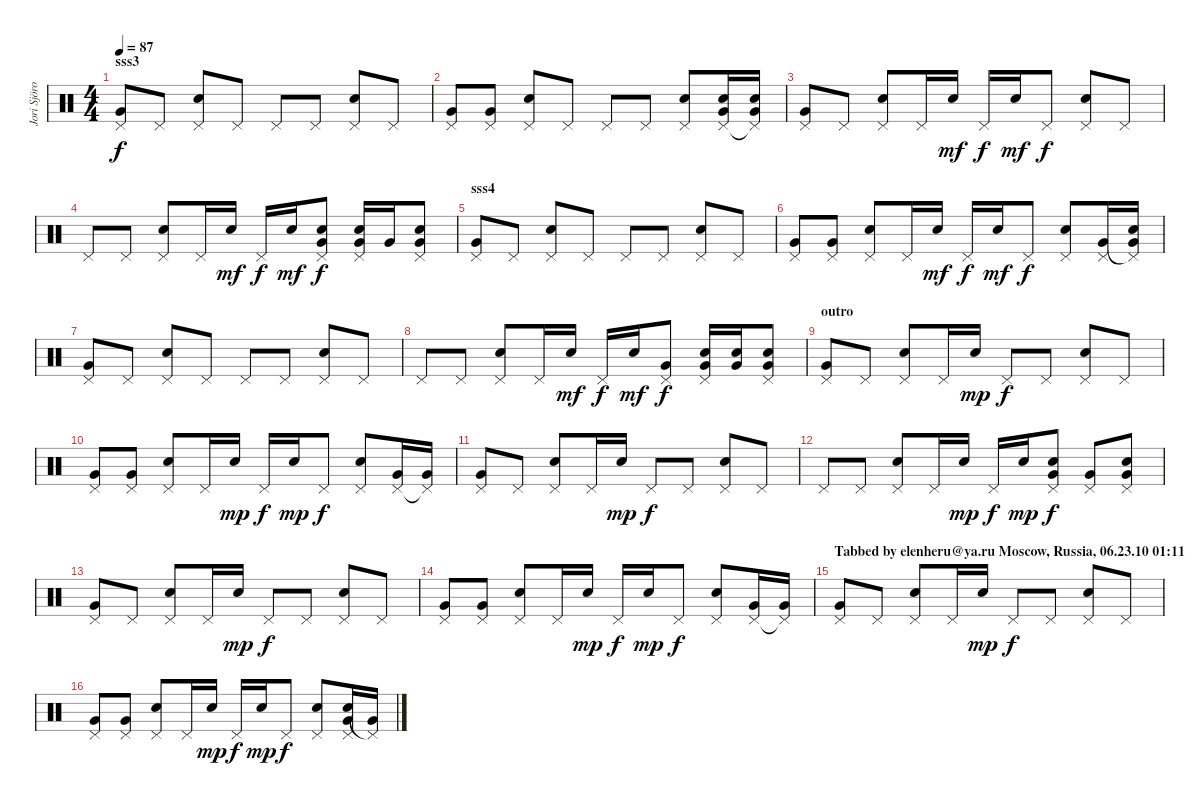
\track ("Jori Sjöroos" "Jori Sjöro") {instrument percussion}
\staff {score}
\articulation defaults
\ts (4 4)
\section ("" "sss3")
\tempo 87
\clef neutral
\ks c
("Pedal Hi-Hat (hit)" "Very Low Tom (hit)").8{dy f} "Pedal Hi-Hat (hit)".8 ("Snare (hit) 2" "Pedal Hi-Hat (hit)").8 "Pedal Hi-Hat (hit)".8 "Pedal Hi-Hat (hit)".8 "Pedal Hi-Hat (hit)".8 ("Snare (hit) 2" "Pedal Hi-Hat (hit)").8 "Pedal Hi-Hat (hit)".8 |
("Pedal Hi-Hat (hit)" "Very Low Tom (hit)").8 ("Pedal Hi-Hat (hit)" "Very Low Tom (hit)").8 ("Snare (hit) 2" "Pedal Hi-Hat (hit)").8 "Pedal Hi-Hat (hit)".8 "Pedal Hi-Hat (hit)".8 "Pedal Hi-Hat (hit)".8 ("Snare (hit) 2" "Pedal Hi-Hat (hit)").8 ("Snare (hit) 2" "Pedal Hi-Hat (hit)" "Very Low Tom (hit)").16 ("Snare (hit) 2" "Pedal Hi-Hat (hit)"{t} "Very Low Tom (hit)").16 |
("Pedal Hi-Hat (hit)" "Very Low Tom (hit)").8 "Pedal Hi-Hat (hit)".8 ("Snare (hit) 2" "Pedal Hi-Hat (hit)").8 "Pedal Hi-Hat (hit)".16 "Snare (hit) 2".16{dy mf} "Pedal Hi-Hat (hit)".16{dy f} "Snare (hit) 2".16{dy mf} "Pedal Hi-Hat (hit)".8{dy f} ("Snare (hit) 2" "Pedal Hi-Hat (hit)").8 "Pedal Hi-Hat (hit)".8 |
"Pedal Hi-Hat (hit)".8 "Pedal Hi-Hat (hit)".8 ("Snare (hit) 2" "Pedal Hi-Hat (hit)").8 "Pedal Hi-Hat (hit)".16 "Snare (hit) 2".16{dy mf} "Pedal Hi-Hat (hit)".16{dy f} "Snare (hit) 2".16{dy mf} ("Snare (hit) 2" "Pedal Hi-Hat (hit)" "Very Low Tom (hit)").8{dy f} ("Snare (hit) 2" "Pedal Hi-Hat (hit)" "Very Low Tom (hit)").16 "Very Low Tom (hit)".16 ("Snare (hit) 2" "Pedal Hi-Hat (hit)" "Very Low Tom (hit)").8 |
\section ("" "sss4")
("Pedal Hi-Hat (hit)" "Very Low Tom (hit)").8 "Pedal Hi-Hat (hit)".8 ("Snare (hit) 2" "Pedal Hi-Hat (hit)").8 "Pedal Hi-Hat (hit)".8 "Pedal Hi-Hat (hit)".8 "Pedal Hi-Hat (hit)".8 ("Snare (hit) 2" "Pedal Hi-Hat (hit)").8 "Pedal Hi-Hat (hit)".8 |
("Pedal Hi-Hat (hit)" "Very Low Tom (hit)").8 ("Pedal Hi-Hat (hit)" "Very Low Tom (hit)").8 ("Snare (hit) 2" "Pedal Hi-Hat (hit)").8 "Pedal Hi-Hat (hit)".16 "Snare (hit) 2".16{dy mf} "Pedal Hi-Hat (hit)".16{dy f} "Snare (hit) 2".16{dy mf} "Pedal Hi-Hat (hit)".8{dy f} ("Snare (hit) 2" "Pedal Hi-Hat (hit)").8 ("Pedal Hi-Hat (hit)" "Very Low Tom (hit)").16 ("Snare (hit) 2" "Pedal Hi-Hat (hit)"{t} "Very Low Tom (hit)").16 |
("Pedal Hi-Hat (hit)" "Very Low Tom (hit)").8 "Pedal Hi-Hat (hit)".8 ("Snare (hit) 2" "Pedal Hi-Hat (hit)").8 "Pedal Hi-Hat (hit)".8 "Pedal Hi-Hat (hit)".8 "Pedal Hi-Hat (hit)".8 ("Snare (hit) 2" "Pedal Hi-Hat (hit)").8 "Pedal Hi-Hat (hit)".8 |
"Pedal Hi-Hat (hit)".8 "Pedal Hi-Hat (hit)".8 ("Snare (hit) 2" "Pedal Hi-Hat (hit)").8 "Pedal Hi-Hat (hit)".16 "Snare (hit) 2".16{dy mf} "Pedal Hi-Hat (hit)".16{dy f} "Snare (hit) 2".16{dy mf} ("Pedal Hi-Hat (hit)" "Very Low Tom (hit)").8{dy f} ("Snare (hit) 2" "Pedal Hi-Hat (hit)" "Very Low Tom (hit)").16 ("Snare (hit) 2" "Very Low Tom (hit)").16 ("Snare (hit) 2" "Pedal Hi-Hat (hit)" "Very Low Tom (hit)").8 |
\section ("" "outro")
("Pedal Hi-Hat (hit)" "Very Low Tom (hit)").8 "Pedal Hi-Hat (hit)".8 ("Snare (hit) 2" "Pedal Hi-Hat (hit)").8 "Pedal Hi-Hat (hit)".16 "Snare (hit) 2".16{dy mp} "Pedal Hi-Hat (hit)".8{dy f} "Pedal Hi-Hat (hit)".8 ("Snare (hit) 2" "Pedal Hi-Hat (hit)").8 "Pedal Hi-Hat (hit)".8 |
("Pedal Hi-Hat (hit)" "Very Low Tom (hit)").8 ("Pedal Hi-Hat (hit)" "Very Low Tom (hit)").8 ("Snare (hit) 2" "Pedal Hi-Hat (hit)").8 "Pedal Hi-Hat (hit)".16 "Snare (hit) 2".16{dy mp} "Pedal Hi-Hat (hit)".16{dy f} "Snare (hit) 2".16{dy mp} "Pedal Hi-Hat (hit)".8{dy f} ("Snare (hit) 2" "Pedal Hi-Hat (hit)").8 ("Pedal Hi-Hat (hit)" "Very Low Tom (hit)").16 ("Pedal Hi-Hat (hit)"{t} "Very Low Tom (hit)").16 |
("Pedal Hi-Hat (hit)" "Very Low Tom (hit)").8 "Pedal Hi-Hat (hit)".8 ("Snare (hit) 2" "Pedal Hi-Hat (hit)").8 "Pedal Hi-Hat (hit)".16 "Snare (hit) 2".16{dy mp} "Pedal Hi-Hat (hit)".8{dy f} "Pedal Hi-Hat (hit)".8 ("Snare (hit) 2" "Pedal Hi-Hat (hit)").8 "Pedal Hi-Hat (hit)".8 |
"Pedal Hi-Hat (hit)".8 "Pedal Hi-Hat (hit)".8 ("Snare (hit) 2" "Pedal Hi-Hat (hit)").8 "Pedal Hi-Hat (hit)".16 "Snare (hit) 2".16{dy mp} "Pedal Hi-Hat (hit)".16{dy f} "Snare (hit) 2".16{dy mp} ("Snare (hit) 2" "Pedal Hi-Hat (hit)" "Very Low Tom (hit)").8{dy f} ("Pedal Hi-Hat (hit)" "Very Low Tom (hit)").8 ("Snare (hit) 2" "Pedal Hi-Hat (hit)" "Very Low Tom (hit)").8 |
("Pedal Hi-Hat (hit)" "Very Low Tom (hit)").8 "Pedal Hi-Hat (hit)".8 ("Snare (hit) 2" "Pedal Hi-Hat (hit)").8 "Pedal Hi-Hat (hit)".16 "Snare (hit) 2".16{dy mp} "Pedal Hi-Hat (hit)".8{dy f} "Pedal Hi-Hat (hit)".8 ("Snare (hit) 2" "Pedal Hi-Hat (hit)").8 "Pedal Hi-Hat (hit)".8 |
("Pedal Hi-Hat (hit)" "Very Low Tom (hit)").8 ("Pedal Hi-Hat (hit)" "Very Low Tom (hit)").8 ("Snare (hit) 2" "Pedal Hi-Hat (hit)").8 "Pedal Hi-Hat (hit)".16 "Snare (hit) 2".16{dy mp} "Pedal Hi-Hat (hit)".16{dy f} "Snare (hit) 2".16{dy mp} "Pedal Hi-Hat (hit)".8{dy f} ("Snare (hit) 2" "Pedal Hi-Hat (hit)").8 ("Pedal Hi-Hat (hit)" "Very Low Tom (hit)").16 ("Pedal Hi-Hat (hit)"{t} "Very Low Tom (hit)").16 |
\section ("" "Tabbed by elenheru@ya.ru Moscow, Russia, 06.23.10 01:11")
("Pedal Hi-Hat (hit)" "Very Low Tom (hit)").8 "Pedal Hi-Hat (hit)".8 ("Snare (hit) 2" "Pedal Hi-Hat (hit)").8 "Pedal Hi-Hat (hit)".16 "Snare (hit) 2".16{dy mp} "Pedal Hi-Hat (hit)".8{dy f} "Pedal Hi-Hat (hit)".8 ("Snare (hit) 2" "Pedal Hi-Hat (hit)").8 "Pedal Hi-Hat (hit)".8 |
("Pedal Hi-Hat (hit)" "Very Low Tom (hit)").8 ("Pedal Hi-Hat (hit)" "Very Low Tom (hit)").8 ("Snare (hit) 2" "Pedal Hi-Hat (hit)").8 "Pedal Hi-Hat (hit)".16 "Snare (hit) 2".16{dy mp} "Pedal Hi-Hat (hit)".16{dy f} "Snare (hit) 2".16{dy mp} "Pedal Hi-Hat (hit)".8{dy f} ("Snare (hit) 2" "Pedal Hi-Hat (hit)").8 ("Snare (hit) 2" "Pedal Hi-Hat (hit)" "Very Low Tom (hit)").16 ("Pedal Hi-Hat (hit)"{t} "Very Low Tom (hit)").16
